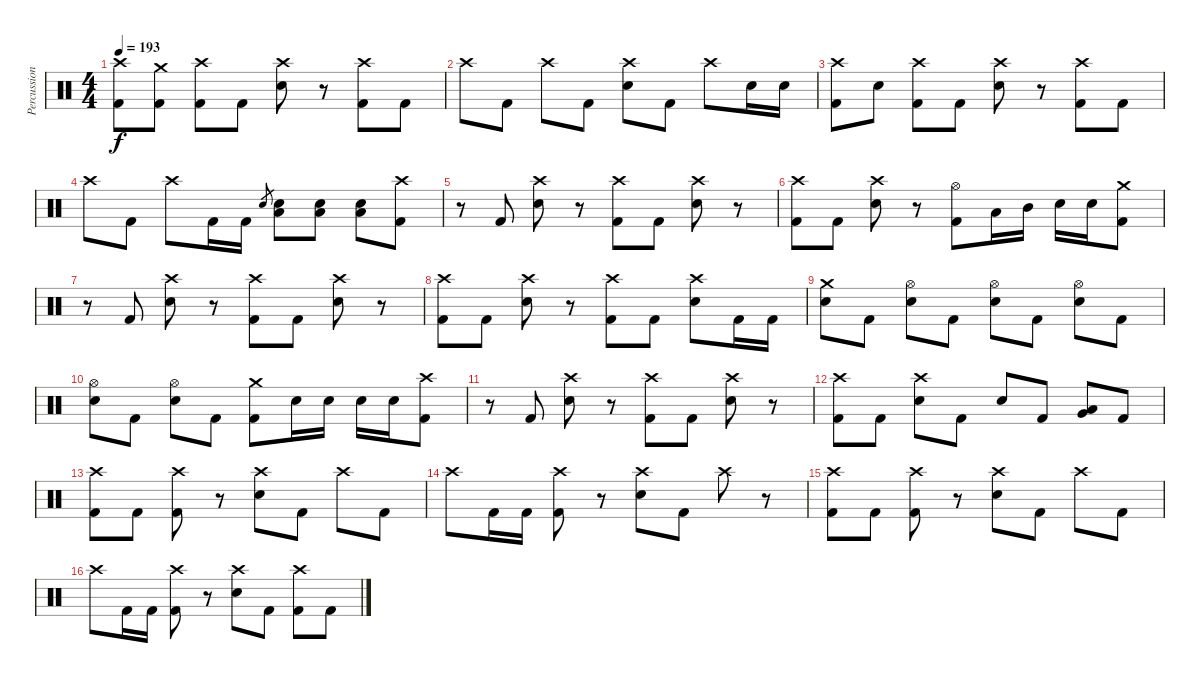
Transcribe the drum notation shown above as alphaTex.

\track ("Percussion" "Percussion") {instrument percussion}
\staff {score}
\articulation defaults
\ts (4 4)
\tempo 193
\clef neutral
\ks c
("Crash high (hit)" "Kick (hit) 2").8{dy f} ("Crash medium (hit)" "Kick (hit) 2").8 ("Crash high (hit)" "Kick (hit) 2").8 "Kick (hit) 2".8 ("Crash high (hit)" "Snare (hit) 2").8 r.8 ("Crash high (hit)" "Kick (hit) 2").8 "Kick (hit) 2".8 |
"Crash high (hit)".8 "Kick (hit) 2".8 "Crash high (hit)".8 "Kick (hit) 2".8 ("Crash high (hit)" "Snare (hit) 2").8 "Kick (hit) 2".8 "Crash high (hit)".8 "Snare (hit) 2".16 "Snare (hit) 2".16 |
("Crash high (hit)" "Kick (hit) 2").8 "Snare (hit) 2".8 ("Crash high (hit)" "Kick (hit) 2").8 "Kick (hit) 2".8 ("Crash high (hit)" "Snare (hit) 2").8 r.8 ("Crash high (hit)" "Kick (hit) 2").8 "Kick (hit) 2".8 |
"Crash high (hit)".8 "Kick (hit) 2".8 "Crash high (hit)".8 "Kick (hit) 2".16 "Kick (hit) 2".16 "Snare (hit) 2".8{gr} ("Low Floor Tom (hit)" "Snare (hit) 2").8 ("Low Floor Tom (hit)" "Snare (hit) 2").8 ("Low Floor Tom (hit)" "Snare (hit) 2").8 ("Crash high (hit)" "Kick (hit) 2").8 |
r.8 "Kick (hit) 2".8 ("Crash high (hit)" "Snare (hit) 2").8 r.8 ("Crash high (hit)" "Kick (hit) 2").8 "Kick (hit) 2".8 ("Crash high (hit)" "Snare (hit) 2").8 r.8 |
("Crash high (hit)" "Kick (hit) 2").8 "Kick (hit) 2".8 ("Crash high (hit)" "Snare (hit) 2").8 r.8 ("Hi-Hat (open)" "Kick (hit) 2").8 "Low Tom (hit)".16 "Mid Tom (hit)".16 "Snare (hit) 2".16 "Snare (hit) 2".16 ("Crash medium (hit)" "Kick (hit) 2").8 |
r.8 "Kick (hit) 2".8 ("Crash high (hit)" "Snare (hit) 2").8 r.8 ("Crash high (hit)" "Kick (hit) 2").8 "Kick (hit) 2".8 ("Crash high (hit)" "Snare (hit) 2").8 r.8 |
("Crash high (hit)" "Kick (hit) 2").8 "Kick (hit) 2".8 ("Crash high (hit)" "Snare (hit) 2").8 r.8 ("Crash high (hit)" "Kick (hit) 2").8 "Kick (hit) 2".8 ("Crash high (hit)" "Snare (hit) 2").8 "Kick (hit) 2".16 "Kick (hit) 2".16 |
("Crash medium (hit)" "Snare (hit) 2").8 "Kick (hit) 2".8 ("Hi-Hat (open)" "Snare (hit) 2").8 "Kick (hit) 2".8 ("Hi-Hat (open)" "Snare (hit) 2").8 "Kick (hit) 2".8 ("Hi-Hat (open)" "Snare (hit) 2").8 "Kick (hit) 2".8 |
("Hi-Hat (open)" "Snare (hit) 2").8 "Kick (hit) 2".8 ("Hi-Hat (open)" "Snare (hit) 2").8 "Kick (hit) 2".8 ("Crash medium (hit)" "Kick (hit) 2").8 "Snare (hit) 2".16 "Snare (hit) 2".16 "Snare (hit) 2".16 "Snare (hit) 2".16 ("Crash high (hit)" "Kick (hit) 2").8 |
r.8 "Kick (hit) 2".8 ("Crash high (hit)" "Snare (hit) 2").8 r.8 ("Crash high (hit)" "Kick (hit) 2").8 "Kick (hit) 2".8 ("Crash high (hit)" "Snare (hit) 2").8 r.8 |
("Crash high (hit)" "Kick (hit) 2").8 "Kick (hit) 2".8 ("Crash high (hit)" "Snare (hit) 2").8 "Kick (hit) 2".8 "Snare (hit) 2".8 "Kick (hit) 2".8 ("Very Low Tom (hit)" "Low Tom (hit)").8 "Kick (hit) 2".8 |
("Crash high (hit)" "Kick (hit) 2").8 "Kick (hit) 2".8 ("Crash high (hit)" "Kick (hit) 2").8 r.8 ("Crash high (hit)" "Snare (hit) 2").8 "Kick (hit) 2".8 "Crash high (hit)".8 "Kick (hit) 2".8 |
"Crash high (hit)".8 "Kick (hit) 2".16 "Kick (hit) 2".16 ("Crash high (hit)" "Kick (hit) 2").8 r.8 ("Crash high (hit)" "Snare (hit) 2").8 "Kick (hit) 2".8 "Crash high (hit)".8 r.8 |
("Crash high (hit)" "Kick (hit) 2").8 "Kick (hit) 2".8 ("Crash high (hit)" "Kick (hit) 2").8 r.8 ("Crash high (hit)" "Snare (hit) 2").8 "Kick (hit) 2".8 "Crash high (hit)".8 "Kick (hit) 2".8 |
"Crash high (hit)".8 "Kick (hit) 2".16 "Kick (hit) 2".16 ("Crash high (hit)" "Kick (hit) 2").8 r.8 ("Crash high (hit)" "Snare (hit) 2").8 "Kick (hit) 2".8 ("Crash high (hit)" "Kick (hit) 2").8 "Kick (hit) 2".8
